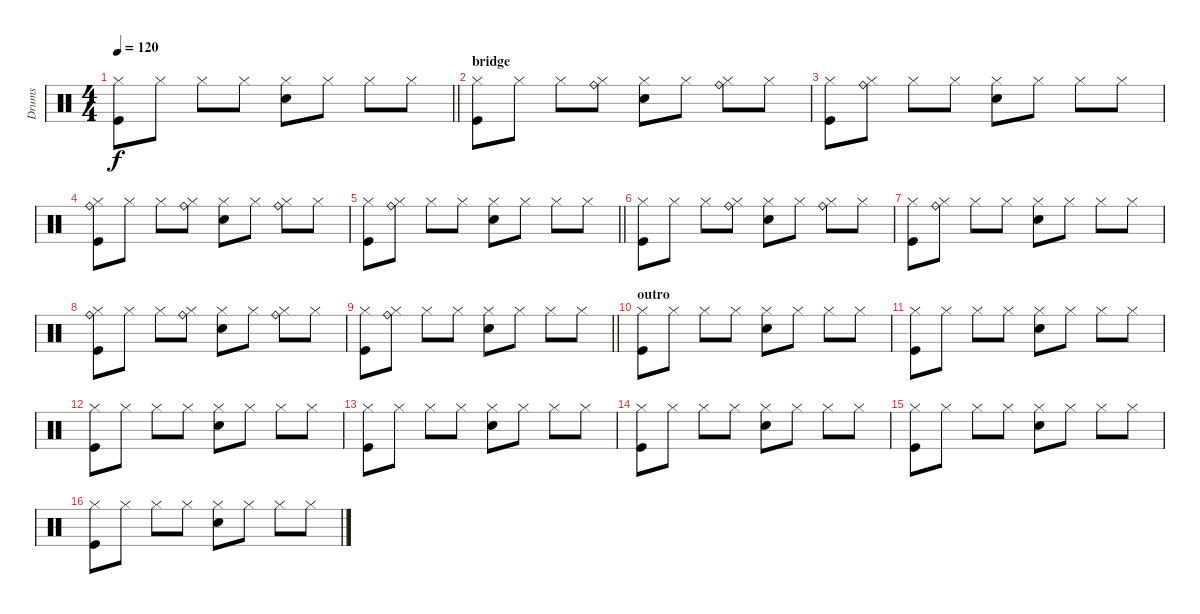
\track ("Drums" "Drums") {instrument percussion}
\staff {score}
\articulation defaults
\ts (4 4)
\tempo 120
\clef neutral
\barLineRight lightlight
\ks c
("Hi-Hat (closed)" "Kick (hit)").8{dy f} "Hi-Hat (closed)".8 "Hi-Hat (closed)".8 "Hi-Hat (closed)".8 ("Hi-Hat (closed)" "Snare (hit) 2").8 "Hi-Hat (closed)".8 "Hi-Hat (closed)".8 "Hi-Hat (closed)".8 |
\section ("" "bridge")
("Hi-Hat (closed)" "Kick (hit)").8 "Hi-Hat (closed)".8 "Hi-Hat (closed)".8 ("Ride (bell)" "Hi-Hat (closed)").8 ("Hi-Hat (closed)" "Snare (hit) 2").8 "Hi-Hat (closed)".8 ("Ride (bell)" "Hi-Hat (closed)").8 "Hi-Hat (closed)".8 |
("Hi-Hat (closed)" "Kick (hit)").8 ("Ride (bell)" "Hi-Hat (closed)").8 "Hi-Hat (closed)".8 "Hi-Hat (closed)".8 ("Hi-Hat (closed)" "Snare (hit) 2").8 "Hi-Hat (closed)".8 "Hi-Hat (closed)".8 "Hi-Hat (closed)".8 |
("Ride (bell)" "Hi-Hat (closed)" "Kick (hit)").8 "Hi-Hat (closed)".8 "Hi-Hat (closed)".8 ("Ride (bell)" "Hi-Hat (closed)").8 ("Hi-Hat (closed)" "Snare (hit) 2").8 "Hi-Hat (closed)".8 ("Ride (bell)" "Hi-Hat (closed)").8 "Hi-Hat (closed)".8 |
\barLineRight lightlight
("Hi-Hat (closed)" "Kick (hit)").8 ("Ride (bell)" "Hi-Hat (closed)").8 "Hi-Hat (closed)".8 "Hi-Hat (closed)".8 ("Hi-Hat (closed)" "Snare (hit) 2").8 "Hi-Hat (closed)".8 "Hi-Hat (closed)".8 "Hi-Hat (closed)".8 |
("Hi-Hat (closed)" "Kick (hit)").8 "Hi-Hat (closed)".8 "Hi-Hat (closed)".8 ("Ride (bell)" "Hi-Hat (closed)").8 ("Hi-Hat (closed)" "Snare (hit) 2").8 "Hi-Hat (closed)".8 ("Ride (bell)" "Hi-Hat (closed)").8 "Hi-Hat (closed)".8 |
("Hi-Hat (closed)" "Kick (hit)").8 ("Ride (bell)" "Hi-Hat (closed)").8 "Hi-Hat (closed)".8 "Hi-Hat (closed)".8 ("Hi-Hat (closed)" "Snare (hit) 2").8 "Hi-Hat (closed)".8 "Hi-Hat (closed)".8 "Hi-Hat (closed)".8 |
("Ride (bell)" "Hi-Hat (closed)" "Kick (hit)").8 "Hi-Hat (closed)".8 "Hi-Hat (closed)".8 ("Ride (bell)" "Hi-Hat (closed)").8 ("Hi-Hat (closed)" "Snare (hit) 2").8 "Hi-Hat (closed)".8 ("Ride (bell)" "Hi-Hat (closed)").8 "Hi-Hat (closed)".8 |
\barLineRight lightlight
("Hi-Hat (closed)" "Kick (hit)").8 ("Ride (bell)" "Hi-Hat (closed)").8 "Hi-Hat (closed)".8 "Hi-Hat (closed)".8 ("Hi-Hat (closed)" "Snare (hit) 2").8 "Hi-Hat (closed)".8 "Hi-Hat (closed)".8 "Hi-Hat (closed)".8 |
\section ("" "outro")
("Hi-Hat (closed)" "Kick (hit)").8 "Hi-Hat (closed)".8 "Hi-Hat (closed)".8 "Hi-Hat (closed)".8 ("Hi-Hat (closed)" "Snare (hit) 2").8 "Hi-Hat (closed)".8 "Hi-Hat (closed)".8 "Hi-Hat (closed)".8 |
("Hi-Hat (closed)" "Kick (hit)").8 "Hi-Hat (closed)".8 "Hi-Hat (closed)".8 "Hi-Hat (closed)".8 ("Hi-Hat (closed)" "Snare (hit) 2").8 "Hi-Hat (closed)".8 "Hi-Hat (closed)".8 "Hi-Hat (closed)".8 |
("Hi-Hat (closed)" "Kick (hit)").8 "Hi-Hat (closed)".8 "Hi-Hat (closed)".8 "Hi-Hat (closed)".8 ("Hi-Hat (closed)" "Snare (hit) 2").8 "Hi-Hat (closed)".8 "Hi-Hat (closed)".8 "Hi-Hat (closed)".8 |
("Hi-Hat (closed)" "Kick (hit)").8 "Hi-Hat (closed)".8 "Hi-Hat (closed)".8 "Hi-Hat (closed)".8 ("Hi-Hat (closed)" "Snare (hit) 2").8 "Hi-Hat (closed)".8 "Hi-Hat (closed)".8 "Hi-Hat (closed)".8 |
("Hi-Hat (closed)" "Kick (hit)").8 "Hi-Hat (closed)".8 "Hi-Hat (closed)".8 "Hi-Hat (closed)".8 ("Hi-Hat (closed)" "Snare (hit) 2").8 "Hi-Hat (closed)".8 "Hi-Hat (closed)".8 "Hi-Hat (closed)".8 |
("Hi-Hat (closed)" "Kick (hit)").8 "Hi-Hat (closed)".8 "Hi-Hat (closed)".8 "Hi-Hat (closed)".8 ("Hi-Hat (closed)" "Snare (hit) 2").8 "Hi-Hat (closed)".8 "Hi-Hat (closed)".8 "Hi-Hat (closed)".8 |
("Hi-Hat (closed)" "Kick (hit)").8 "Hi-Hat (closed)".8 "Hi-Hat (closed)".8 "Hi-Hat (closed)".8 ("Hi-Hat (closed)" "Snare (hit) 2").8 "Hi-Hat (closed)".8 "Hi-Hat (closed)".8 "Hi-Hat (closed)".8
